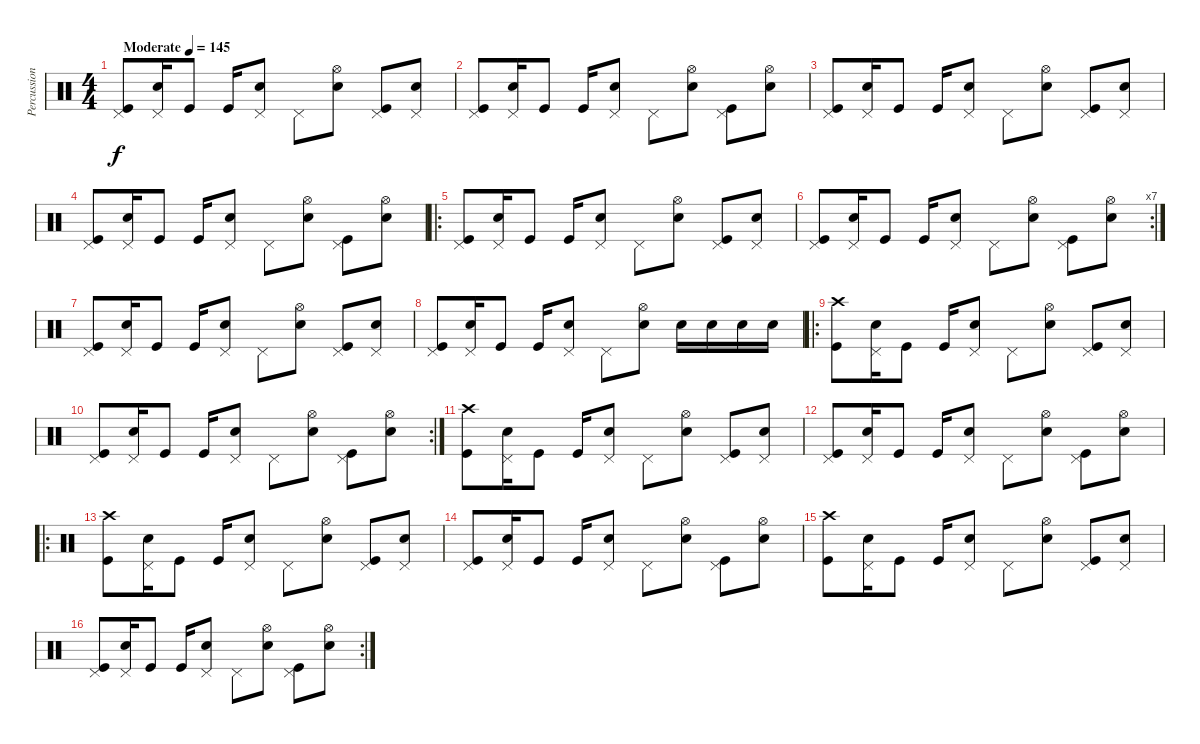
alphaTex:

\track ("Percussion" "Percussion") {instrument percussion}
\staff {score}
\articulation defaults
\ts (4 4)
\tempo (145 "Moderate")
\clef neutral
\ks c
("Pedal Hi-Hat (hit)" "Kick (hit)").8{dy f} ("Pedal Hi-Hat (hit)" "Electric Snare (hit)").16 "Kick (hit)".8 "Kick (hit)".16 ("Pedal Hi-Hat (hit)" "Electric Snare (hit)").8 "Pedal Hi-Hat (hit)".8 ("Hi-Hat (open)" "Electric Snare (hit)").8 ("Pedal Hi-Hat (hit)" "Kick (hit)").8 ("Pedal Hi-Hat (hit)" "Electric Snare (hit)").8 |
("Pedal Hi-Hat (hit)" "Kick (hit)").8 ("Pedal Hi-Hat (hit)" "Electric Snare (hit)").16 "Kick (hit)".8 "Kick (hit)".16 ("Pedal Hi-Hat (hit)" "Electric Snare (hit)").8 "Pedal Hi-Hat (hit)".8 ("Hi-Hat (open)" "Electric Snare (hit)").8 ("Pedal Hi-Hat (hit)" "Kick (hit)").8 ("Hi-Hat (open)" "Electric Snare (hit)").8 |
("Pedal Hi-Hat (hit)" "Kick (hit)").8 ("Pedal Hi-Hat (hit)" "Electric Snare (hit)").16 "Kick (hit)".8 "Kick (hit)".16 ("Pedal Hi-Hat (hit)" "Electric Snare (hit)").8 "Pedal Hi-Hat (hit)".8 ("Hi-Hat (open)" "Electric Snare (hit)").8 ("Pedal Hi-Hat (hit)" "Kick (hit)").8 ("Pedal Hi-Hat (hit)" "Electric Snare (hit)").8 |
("Pedal Hi-Hat (hit)" "Kick (hit)").8 ("Pedal Hi-Hat (hit)" "Electric Snare (hit)").16 "Kick (hit)".8 "Kick (hit)".16 ("Pedal Hi-Hat (hit)" "Electric Snare (hit)").8 "Pedal Hi-Hat (hit)".8 ("Hi-Hat (open)" "Electric Snare (hit)").8 ("Pedal Hi-Hat (hit)" "Kick (hit)").8 ("Hi-Hat (open)" "Electric Snare (hit)").8 |
\ro
("Pedal Hi-Hat (hit)" "Kick (hit)").8 ("Pedal Hi-Hat (hit)" "Electric Snare (hit)").16 "Kick (hit)".8 "Kick (hit)".16 ("Pedal Hi-Hat (hit)" "Electric Snare (hit)").8 "Pedal Hi-Hat (hit)".8 ("Hi-Hat (open)" "Electric Snare (hit)").8 ("Pedal Hi-Hat (hit)" "Kick (hit)").8 ("Pedal Hi-Hat (hit)" "Electric Snare (hit)").8 |
\rc 7
("Pedal Hi-Hat (hit)" "Kick (hit)").8 ("Pedal Hi-Hat (hit)" "Electric Snare (hit)").16 "Kick (hit)".8 "Kick (hit)".16 ("Pedal Hi-Hat (hit)" "Electric Snare (hit)").8 "Pedal Hi-Hat (hit)".8 ("Hi-Hat (open)" "Electric Snare (hit)").8 ("Pedal Hi-Hat (hit)" "Kick (hit)").8 ("Hi-Hat (open)" "Electric Snare (hit)").8 |
("Pedal Hi-Hat (hit)" "Kick (hit)").8 ("Pedal Hi-Hat (hit)" "Electric Snare (hit)").16 "Kick (hit)".8 "Kick (hit)".16 ("Pedal Hi-Hat (hit)" "Electric Snare (hit)").8 "Pedal Hi-Hat (hit)".8 ("Hi-Hat (open)" "Electric Snare (hit)").8 ("Pedal Hi-Hat (hit)" "Kick (hit)").8 ("Pedal Hi-Hat (hit)" "Electric Snare (hit)").8 |
("Pedal Hi-Hat (hit)" "Kick (hit)").8 ("Pedal Hi-Hat (hit)" "Electric Snare (hit)").16 "Kick (hit)".8 "Kick (hit)".16 ("Pedal Hi-Hat (hit)" "Electric Snare (hit)").8 "Pedal Hi-Hat (hit)".8 ("Hi-Hat (open)" "Electric Snare (hit)").8 "Electric Snare (hit)".16 "Electric Snare (hit)".16 "Electric Snare (hit)".16 "Electric Snare (hit)".16 |
\ro
("Crash high (hit)" "Kick (hit)").8 ("Pedal Hi-Hat (hit)" "Electric Snare (hit)").16 "Kick (hit)".8 "Kick (hit)".16 ("Pedal Hi-Hat (hit)" "Electric Snare (hit)").8 "Pedal Hi-Hat (hit)".8 ("Hi-Hat (open)" "Electric Snare (hit)").8 ("Pedal Hi-Hat (hit)" "Kick (hit)").8 ("Pedal Hi-Hat (hit)" "Electric Snare (hit)").8 |
\rc 2
("Pedal Hi-Hat (hit)" "Kick (hit)").8 ("Pedal Hi-Hat (hit)" "Electric Snare (hit)").16 "Kick (hit)".8 "Kick (hit)".16 ("Pedal Hi-Hat (hit)" "Electric Snare (hit)").8 "Pedal Hi-Hat (hit)".8 ("Hi-Hat (open)" "Electric Snare (hit)").8 ("Pedal Hi-Hat (hit)" "Kick (hit)").8 ("Hi-Hat (open)" "Electric Snare (hit)").8 |
("Crash high (hit)" "Kick (hit)").8 ("Pedal Hi-Hat (hit)" "Electric Snare (hit)").16 "Kick (hit)".8 "Kick (hit)".16 ("Pedal Hi-Hat (hit)" "Electric Snare (hit)").8 "Pedal Hi-Hat (hit)".8 ("Hi-Hat (open)" "Electric Snare (hit)").8 ("Pedal Hi-Hat (hit)" "Kick (hit)").8 ("Pedal Hi-Hat (hit)" "Electric Snare (hit)").8 |
("Pedal Hi-Hat (hit)" "Kick (hit)").8 ("Pedal Hi-Hat (hit)" "Electric Snare (hit)").16 "Kick (hit)".8 "Kick (hit)".16 ("Pedal Hi-Hat (hit)" "Electric Snare (hit)").8 "Pedal Hi-Hat (hit)".8 ("Hi-Hat (open)" "Electric Snare (hit)").8 ("Pedal Hi-Hat (hit)" "Kick (hit)").8 ("Hi-Hat (open)" "Electric Snare (hit)").8 |
\ro
("Crash high (hit)" "Kick (hit)").8 ("Pedal Hi-Hat (hit)" "Electric Snare (hit)").16 "Kick (hit)".8 "Kick (hit)".16 ("Pedal Hi-Hat (hit)" "Electric Snare (hit)").8 "Pedal Hi-Hat (hit)".8 ("Hi-Hat (open)" "Electric Snare (hit)").8 ("Pedal Hi-Hat (hit)" "Kick (hit)").8 ("Pedal Hi-Hat (hit)" "Electric Snare (hit)").8 |
("Pedal Hi-Hat (hit)" "Kick (hit)").8 ("Pedal Hi-Hat (hit)" "Electric Snare (hit)").16 "Kick (hit)".8 "Kick (hit)".16 ("Pedal Hi-Hat (hit)" "Electric Snare (hit)").8 "Pedal Hi-Hat (hit)".8 ("Hi-Hat (open)" "Electric Snare (hit)").8 ("Pedal Hi-Hat (hit)" "Kick (hit)").8 ("Hi-Hat (open)" "Electric Snare (hit)").8 |
("Crash high (hit)" "Kick (hit)").8 ("Pedal Hi-Hat (hit)" "Electric Snare (hit)").16 "Kick (hit)".8 "Kick (hit)".16 ("Pedal Hi-Hat (hit)" "Electric Snare (hit)").8 "Pedal Hi-Hat (hit)".8 ("Hi-Hat (open)" "Electric Snare (hit)").8 ("Pedal Hi-Hat (hit)" "Kick (hit)").8 ("Pedal Hi-Hat (hit)" "Electric Snare (hit)").8 |
\rc 2
("Pedal Hi-Hat (hit)" "Kick (hit)").8 ("Pedal Hi-Hat (hit)" "Electric Snare (hit)").16 "Kick (hit)".8 "Kick (hit)".16 ("Pedal Hi-Hat (hit)" "Electric Snare (hit)").8 "Pedal Hi-Hat (hit)".8 ("Hi-Hat (open)" "Electric Snare (hit)").8 ("Pedal Hi-Hat (hit)" "Kick (hit)").8 ("Hi-Hat (open)" "Electric Snare (hit)").8
